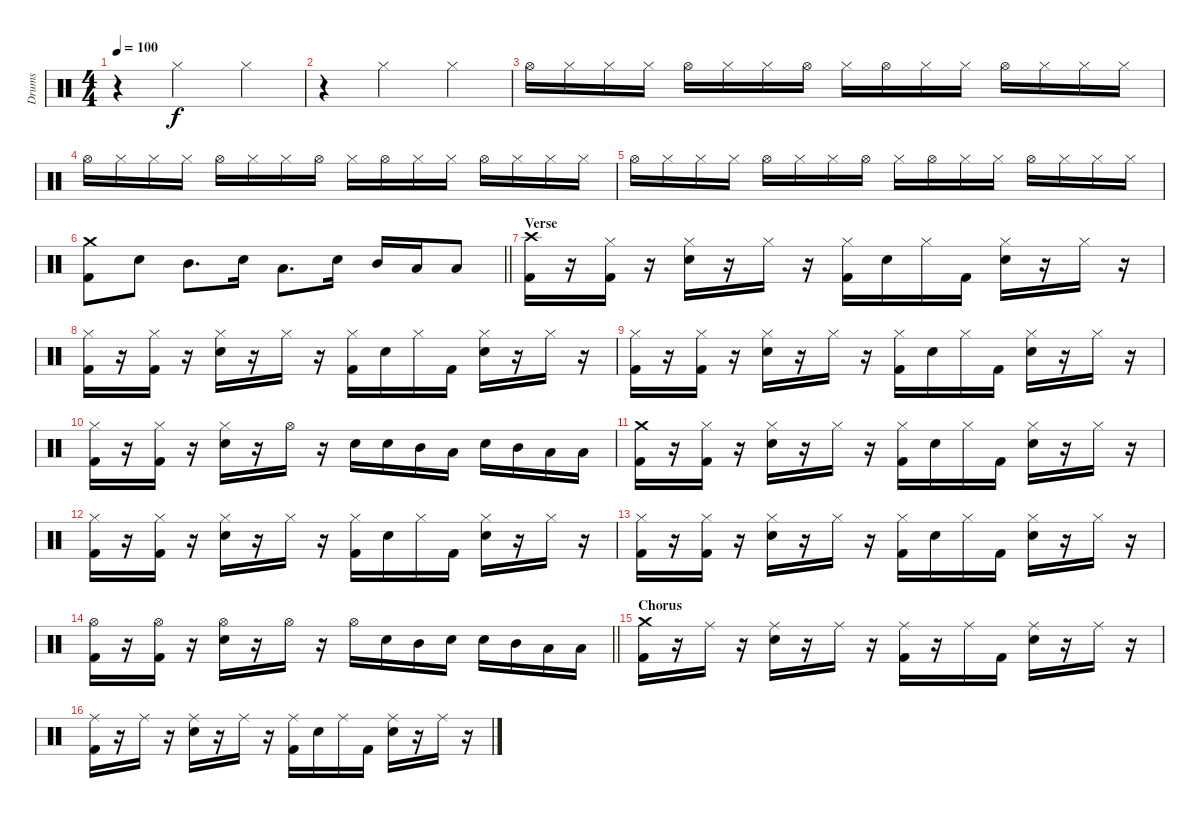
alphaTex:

\track ("Drums" "Drums") {instrument percussion}
\staff {score}
\articulation defaults
\ts (4 4)
\tempo 100
\clef neutral
\ks c
r.4{dy f} "Hi-Hat (closed)".2 "Hi-Hat (closed)".4 |
r.4 "Hi-Hat (closed)".2 "Hi-Hat (closed)".4 |
"Hi-Hat (open)".16 "Hi-Hat (closed)".16 "Hi-Hat (closed)".16 "Hi-Hat (closed)".16 "Hi-Hat (open)".16 "Hi-Hat (closed)".16 "Hi-Hat (closed)".16 "Hi-Hat (open)".16 "Hi-Hat (closed)".16 "Hi-Hat (open)".16 "Hi-Hat (closed)".16 "Hi-Hat (closed)".16 "Hi-Hat (open)".16 "Hi-Hat (closed)".16 "Hi-Hat (closed)".16 "Hi-Hat (closed)".16 |
"Hi-Hat (open)".16 "Hi-Hat (closed)".16 "Hi-Hat (closed)".16 "Hi-Hat (closed)".16 "Hi-Hat (open)".16 "Hi-Hat (closed)".16 "Hi-Hat (closed)".16 "Hi-Hat (open)".16 "Hi-Hat (closed)".16 "Hi-Hat (open)".16 "Hi-Hat (closed)".16 "Hi-Hat (closed)".16 "Hi-Hat (open)".16 "Hi-Hat (closed)".16 "Hi-Hat (closed)".16 "Hi-Hat (closed)".16 |
"Hi-Hat (open)".16 "Hi-Hat (closed)".16 "Hi-Hat (closed)".16 "Hi-Hat (closed)".16 "Hi-Hat (open)".16 "Hi-Hat (closed)".16 "Hi-Hat (closed)".16 "Hi-Hat (open)".16 "Hi-Hat (closed)".16 "Hi-Hat (open)".16 "Hi-Hat (closed)".16 "Hi-Hat (closed)".16 "Hi-Hat (open)".16 "Hi-Hat (closed)".16 "Hi-Hat (closed)".16 "Hi-Hat (closed)".16 |
\barLineRight lightlight
("Crash medium (hit)" "Kick (hit) 2").8 "Snare (hit) 2".8 "Mid Tom (hit)".8{d} "Snare (hit) 2".16 "Low Tom (hit)".8{d} "Snare (hit) 2".16 "Mid Tom (hit)".16 "Low Tom (hit)".16 "Low Floor Tom (hit)".8 |
\section ("" "Verse")
("Crash high (hit)" "Kick (hit) 2").16 r.16 ("Hi-Hat (closed)" "Kick (hit) 2").16 r.16 ("Hi-Hat (closed)" "Snare (hit) 2").16 r.16 "Hi-Hat (closed)".16 r.16 ("Hi-Hat (closed)" "Kick (hit) 2").16 "Snare (hit) 2".16 "Hi-Hat (closed)".16 "Kick (hit) 2".16 ("Hi-Hat (closed)" "Snare (hit) 2").16 r.16 "Hi-Hat (closed)".16 r.16 |
("Hi-Hat (closed)" "Kick (hit) 2").16 r.16 ("Hi-Hat (closed)" "Kick (hit) 2").16 r.16 ("Hi-Hat (closed)" "Snare (hit) 2").16 r.16 "Hi-Hat (closed)".16 r.16 ("Hi-Hat (closed)" "Kick (hit) 2").16 "Snare (hit) 2".16 "Hi-Hat (closed)".16 "Kick (hit) 2".16 ("Hi-Hat (closed)" "Snare (hit) 2").16 r.16 "Hi-Hat (closed)".16 r.16 |
("Hi-Hat (closed)" "Kick (hit) 2").16 r.16 ("Hi-Hat (closed)" "Kick (hit) 2").16 r.16 ("Hi-Hat (closed)" "Snare (hit) 2").16 r.16 "Hi-Hat (closed)".16 r.16 ("Hi-Hat (closed)" "Kick (hit) 2").16 "Snare (hit) 2".16 "Hi-Hat (closed)".16 "Kick (hit) 2".16 ("Hi-Hat (closed)" "Snare (hit) 2").16 r.16 "Hi-Hat (closed)".16 r.16 |
("Hi-Hat (closed)" "Kick (hit) 2").16 r.16 ("Hi-Hat (closed)" "Kick (hit) 2").16 r.16 ("Hi-Hat (closed)" "Snare (hit) 2").16 r.16 "Hi-Hat (open)".16 r.16 "Snare (hit) 2".16 "Snare (hit) 2".16 "Mid Tom (hit)".16 "Low Tom (hit)".16 "Snare (hit) 2".16 "Mid Tom (hit)".16 "Low Tom (hit)".16 "Low Floor Tom (hit)".16 |
("Crash medium (hit)" "Kick (hit) 2").16 r.16 ("Hi-Hat (closed)" "Kick (hit) 2").16 r.16 ("Hi-Hat (closed)" "Snare (hit) 2").16 r.16 "Hi-Hat (closed)".16 r.16 ("Hi-Hat (closed)" "Kick (hit) 2").16 "Snare (hit) 2".16 "Hi-Hat (closed)".16 "Kick (hit) 2".16 ("Hi-Hat (closed)" "Snare (hit) 2").16 r.16 "Hi-Hat (closed)".16 r.16 |
("Hi-Hat (closed)" "Kick (hit) 2").16 r.16 ("Hi-Hat (closed)" "Kick (hit) 2").16 r.16 ("Hi-Hat (closed)" "Snare (hit) 2").16 r.16 "Hi-Hat (closed)".16 r.16 ("Hi-Hat (closed)" "Kick (hit) 2").16 "Snare (hit) 2".16 "Hi-Hat (closed)".16 "Kick (hit) 2".16 ("Hi-Hat (closed)" "Snare (hit) 2").16 r.16 "Hi-Hat (closed)".16 r.16 |
("Hi-Hat (closed)" "Kick (hit) 2").16 r.16 ("Hi-Hat (closed)" "Kick (hit) 2").16 r.16 ("Hi-Hat (closed)" "Snare (hit) 2").16 r.16 "Hi-Hat (closed)".16 r.16 ("Hi-Hat (closed)" "Kick (hit) 2").16 "Snare (hit) 2".16 "Hi-Hat (closed)".16 "Kick (hit) 2".16 ("Hi-Hat (closed)" "Snare (hit) 2").16 r.16 "Hi-Hat (closed)".16 r.16 |
\barLineRight lightlight
("Hi-Hat (open)" "Kick (hit) 2").16 r.16 ("Hi-Hat (open)" "Kick (hit) 2").16 r.16 ("Hi-Hat (open)" "Snare (hit) 2").16 r.16 "Hi-Hat (open)".16 r.16 "Hi-Hat (open)".16 "Snare (hit) 2".16 "Mid Tom (hit)".16 "Snare (hit) 2".16 "Snare (hit) 2".16 "Mid Tom (hit)".16 "Low Tom (hit)".16 "Low Floor Tom (hit)".16 |
\section ("" "Chorus")
("Crash medium (hit)" "Kick (hit) 2").16 r.16 "Ride (middle)".16 r.16 ("Ride (middle)" "Snare (hit) 2").16 r.16 "Ride (middle)".16 r.16 ("Ride (middle)" "Kick (hit) 2").16 r.16 "Ride (middle)".16 "Kick (hit) 2".16 ("Ride (middle)" "Snare (hit) 2").16 r.16 "Ride (middle)".16 r.16 |
("Ride (middle)" "Kick (hit) 2").16 r.16 "Ride (middle)".16 r.16 ("Ride (middle)" "Snare (hit) 2").16 r.16 "Ride (middle)".16 r.16 ("Ride (middle)" "Kick (hit) 2").16 "Snare (hit) 2".16 "Ride (middle)".16 "Kick (hit) 2".16 ("Ride (middle)" "Snare (hit) 2").16 r.16 "Ride (middle)".16 r.16
